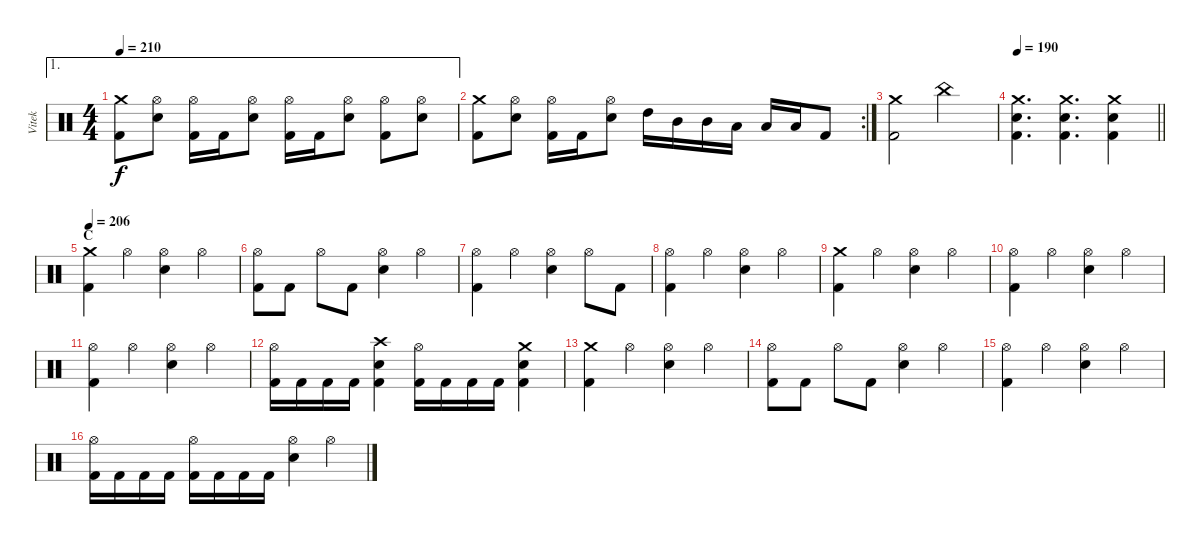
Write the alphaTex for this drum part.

\track ("Vitek" "Vitek") {instrument percussion}
\staff {score}
\articulation defaults
\ae 1
\ts (4 4)
\tempo 210
\clef neutral
\ks c
("Crash medium (hit)" "Kick (hit) 2").8{dy f} ("Hi-Hat (open)" "Electric Snare (hit)").8 ("Hi-Hat (open)" "Kick (hit) 2").16 "Kick (hit) 2".16 ("Hi-Hat (open)" "Electric Snare (hit)").8 ("Hi-Hat (open)" "Kick (hit) 2").16 "Kick (hit) 2".16 ("Hi-Hat (open)" "Electric Snare (hit)").8 ("Hi-Hat (open)" "Kick (hit) 2").8 ("Hi-Hat (open)" "Electric Snare (hit)").8 |
\rc 2
("Crash medium (hit)" "Kick (hit) 2").8 ("Hi-Hat (open)" "Electric Snare (hit)").8 ("Hi-Hat (open)" "Kick (hit) 2").16 "Kick (hit) 2".16 ("Hi-Hat (open)" "Electric Snare (hit)").8 "High Tom (hit)".16 "Mid Tom (hit)".16 "Mid Tom (hit)".16 "Low Tom (hit)".16 "Low Tom (hit)".16 "Low Tom (hit)".16 "Kick (hit) 2".8 |
("Crash medium (hit)" "Kick (hit) 2").2 "China (hit)".2 |
\tempo 190
\barLineRight lightlight
("Crash medium (hit)" "Electric Snare (hit)" "Kick (hit) 2").4{d} ("Crash medium (hit)" "Electric Snare (hit)" "Kick (hit) 2").4{d} ("Crash medium (hit)" "Electric Snare (hit)" "Kick (hit) 2").4 |
\section ("" "C")
\tempo 206
("Crash medium (hit)" "Kick (hit) 2").4 "Hi-Hat (open)".4 ("Hi-Hat (open)" "Electric Snare (hit)").4 "Hi-Hat (open)".4 |
("Hi-Hat (open)" "Kick (hit) 2").8 "Kick (hit) 2".8 "Hi-Hat (open)".8 "Kick (hit) 2".8 ("Hi-Hat (open)" "Electric Snare (hit)").4 "Hi-Hat (open)".4 |
("Hi-Hat (open)" "Kick (hit) 2").4 "Hi-Hat (open)".4 ("Hi-Hat (open)" "Electric Snare (hit)").4 "Hi-Hat (open)".8 "Kick (hit) 2".8 |
("Hi-Hat (open)" "Kick (hit) 2").4 "Hi-Hat (open)".4 ("Hi-Hat (open)" "Electric Snare (hit)").4 "Hi-Hat (open)".4 |
("Crash medium (hit)" "Kick (hit) 2").4 "Hi-Hat (open)".4 ("Hi-Hat (open)" "Electric Snare (hit)").4 "Hi-Hat (open)".4 |
("Hi-Hat (open)" "Kick (hit) 2").4 "Hi-Hat (open)".4 ("Hi-Hat (open)" "Electric Snare (hit)").4 "Hi-Hat (open)".4 |
("Hi-Hat (open)" "Kick (hit) 2").4 "Hi-Hat (open)".4 ("Hi-Hat (open)" "Electric Snare (hit)").4 "Hi-Hat (open)".4 |
("Hi-Hat (open)" "Kick (hit) 2").16 "Kick (hit) 2".16 "Kick (hit) 2".16 "Kick (hit) 2".16 ("Crash high (hit)" "Electric Snare (hit)" "Kick (hit) 2").4 ("Hi-Hat (open)" "Kick (hit) 2").16 "Kick (hit) 2".16 "Kick (hit) 2".16 "Kick (hit) 2".16 ("Crash medium (hit)" "Electric Snare (hit)" "Kick (hit) 2").4 |
("Crash medium (hit)" "Kick (hit) 2").4 "Hi-Hat (open)".4 ("Hi-Hat (open)" "Electric Snare (hit)").4 "Hi-Hat (open)".4 |
("Hi-Hat (open)" "Kick (hit) 2").8 "Kick (hit) 2".8 "Hi-Hat (open)".8 "Kick (hit) 2".8 ("Hi-Hat (open)" "Electric Snare (hit)").4 "Hi-Hat (open)".4 |
("Hi-Hat (open)" "Kick (hit) 2").4 "Hi-Hat (open)".4 ("Hi-Hat (open)" "Electric Snare (hit)").4 "Hi-Hat (open)".4 |
("Hi-Hat (open)" "Kick (hit) 2").16 "Kick (hit) 2".16 "Kick (hit) 2".16 "Kick (hit) 2".16 ("Hi-Hat (open)" "Kick (hit) 2").16 "Kick (hit) 2".16 "Kick (hit) 2".16 "Kick (hit) 2".16 ("Hi-Hat (open)" "Electric Snare (hit)").4 "Hi-Hat (open)".4
